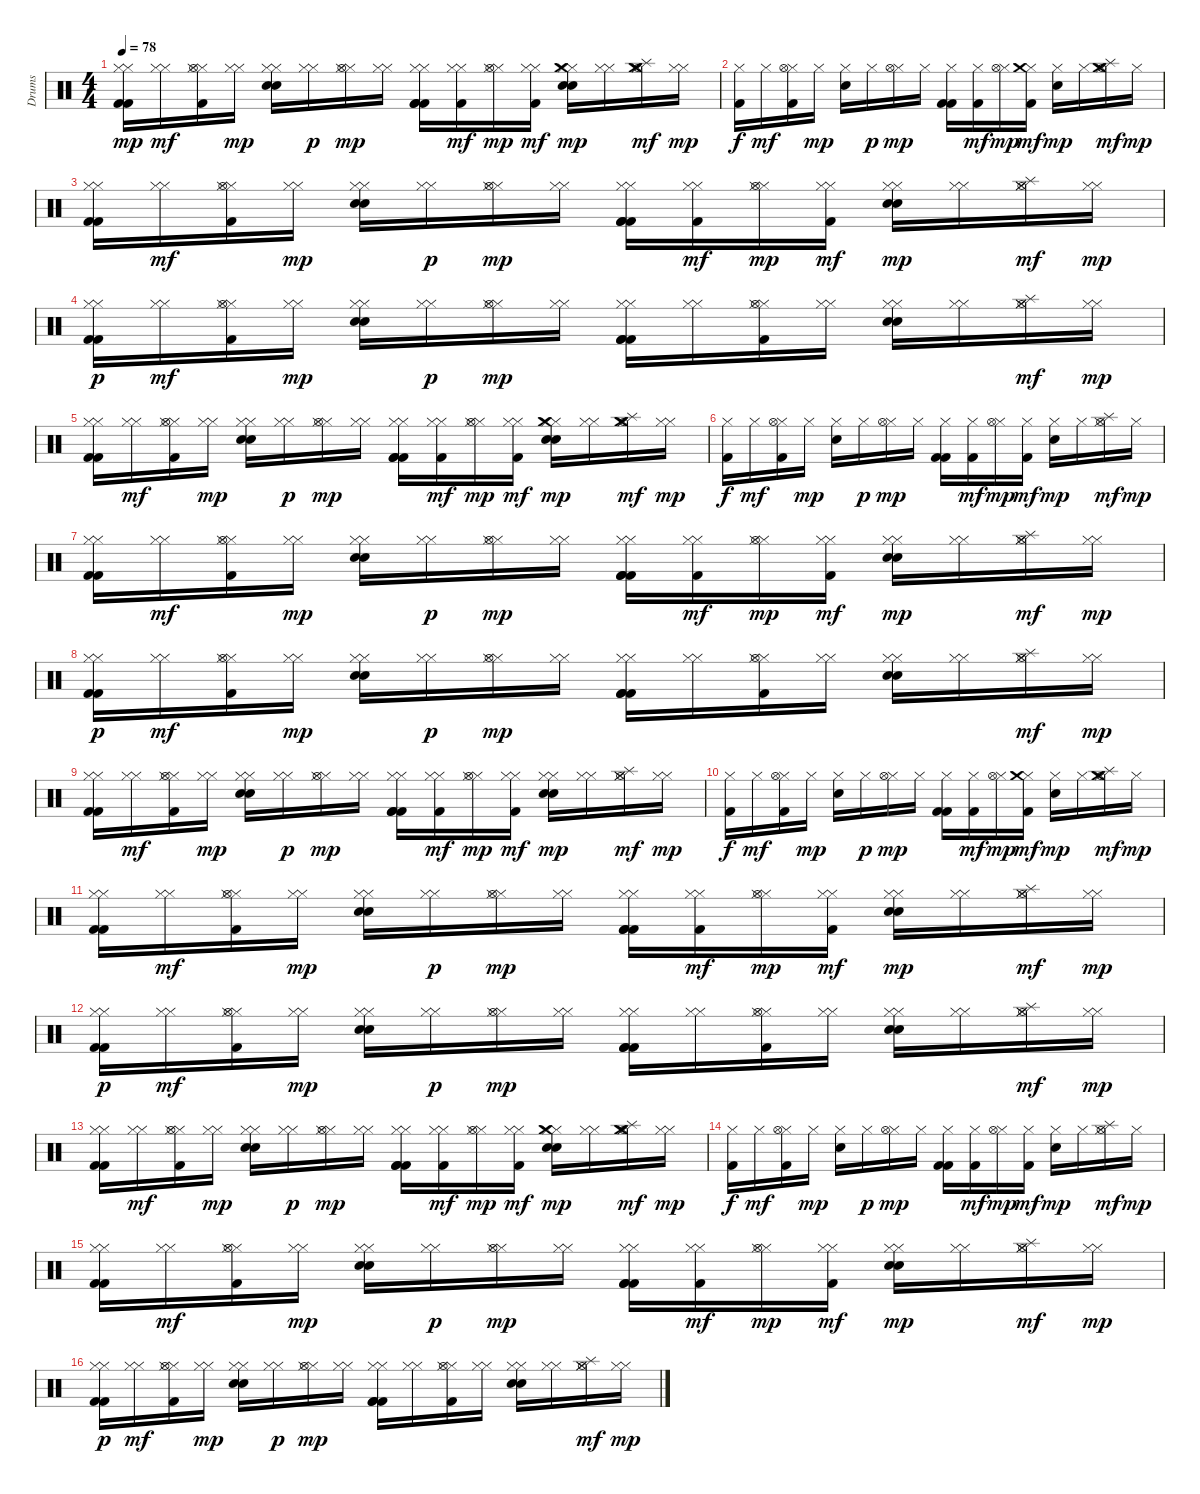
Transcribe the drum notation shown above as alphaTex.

\track ("Drums" "Drums") {instrument percussion}
\staff {score}
\articulation defaults
\ts (4 4)
\tempo 78
\clef neutral
\ks c
("Kick (hit) 2" "Hi-Hat (closed)" "Kick (hit) 2" "Hi-Hat (closed)").16{dy mp} ("Hi-Hat (closed)" "Hi-Hat (closed)").16{dy mf} ("Hi-Hat (closed)" "Hi-Hat (closed)" "Kick (hit) 2" "Hi-Hat (open)").16 ("Hi-Hat (closed)" "Hi-Hat (closed)").16{dy mp} ("Snare (hit) 2" "Hi-Hat (closed)" "Snare (hit) 2" "Hi-Hat (closed)").16 ("Hi-Hat (closed)" "Hi-Hat (closed)").16{dy p} ("Hi-Hat (closed)" "Hi-Hat (closed)" "Hi-Hat (open)").16{dy mp} ("Hi-Hat (closed)" "Hi-Hat (closed)").16 ("Kick (hit) 2" "Hi-Hat (closed)" "Kick (hit) 2" "Hi-Hat (closed)" "Kick (hit) 2").16 ("Hi-Hat (closed)" "Hi-Hat (closed)" "Kick (hit) 2").16{dy mf} ("Hi-Hat (closed)" "Hi-Hat (closed)" "Hi-Hat (open)").16{dy mp} ("Hi-Hat (closed)" "Hi-Hat (closed)" "Kick (hit) 2").16{dy mf} ("Snare (hit) 2" "Hi-Hat (closed)" "Snare (hit) 2" "Hi-Hat (closed)" "Crash medium (hit)").16{dy mp} ("Hi-Hat (closed)" "Hi-Hat (closed)").16 ("Hi-Hat (closed)" "Hi-Hat (closed)" "Hi-Hat (open)" "Splash (hit)" "Crash medium (hit)").16{dy mf} ("Hi-Hat (closed)" "Hi-Hat (closed)").16{dy mp} |
("Kick (hit) 2" "Hi-Hat (closed)").16{dy f} "Hi-Hat (closed)".16{dy mf} ("Hi-Hat (closed)" "Kick (hit) 2" "Hi-Hat (open)").16 "Hi-Hat (closed)".16{dy mp} ("Snare (hit) 2" "Hi-Hat (closed)").16 "Hi-Hat (closed)".16{dy p} ("Hi-Hat (closed)" "Hi-Hat (open)").16{dy mp} "Hi-Hat (closed)".16 ("Kick (hit) 2" "Hi-Hat (closed)" "Kick (hit) 2").16 ("Hi-Hat (closed)" "Kick (hit) 2").16{dy mf} ("Hi-Hat (closed)" "Hi-Hat (open)").16{dy mp} ("Hi-Hat (closed)" "Kick (hit) 2" "Crash medium (hit)").16{dy mf} ("Snare (hit) 2" "Hi-Hat (closed)").16{dy mp} "Hi-Hat (closed)".16 ("Crash medium (hit)" "Hi-Hat (closed)" "Hi-Hat (open)" "Splash (hit)").16{dy mf} "Hi-Hat (closed)".16{dy mp} |
("Kick (hit) 2" "Hi-Hat (closed)" "Kick (hit) 2" "Hi-Hat (closed)").16 ("Hi-Hat (closed)" "Hi-Hat (closed)").16{dy mf} ("Hi-Hat (closed)" "Hi-Hat (closed)" "Kick (hit) 2" "Hi-Hat (open)").16 ("Hi-Hat (closed)" "Hi-Hat (closed)").16{dy mp} ("Snare (hit) 2" "Hi-Hat (closed)" "Snare (hit) 2" "Hi-Hat (closed)").16 ("Hi-Hat (closed)" "Hi-Hat (closed)").16{dy p} ("Hi-Hat (closed)" "Hi-Hat (closed)" "Hi-Hat (open)").16{dy mp} ("Hi-Hat (closed)" "Hi-Hat (closed)").16 ("Kick (hit) 2" "Hi-Hat (closed)" "Kick (hit) 2" "Hi-Hat (closed)" "Kick (hit) 2").16 ("Hi-Hat (closed)" "Hi-Hat (closed)" "Kick (hit) 2").16{dy mf} ("Hi-Hat (closed)" "Hi-Hat (closed)" "Hi-Hat (open)").16{dy mp} ("Hi-Hat (closed)" "Hi-Hat (closed)" "Kick (hit) 2").16{dy mf} ("Snare (hit) 2" "Hi-Hat (closed)" "Snare (hit) 2" "Hi-Hat (closed)").16{dy mp} ("Hi-Hat (closed)" "Hi-Hat (closed)").16 ("Hi-Hat (closed)" "Hi-Hat (closed)" "Hi-Hat (open)" "Splash (hit)").16{dy mf} ("Hi-Hat (closed)" "Hi-Hat (closed)").16{dy mp} |
("Kick (hit) 2" "Hi-Hat (closed)" "Kick (hit) 2" "Hi-Hat (closed)").16{dy p} ("Hi-Hat (closed)" "Hi-Hat (closed)").16{dy mf} ("Hi-Hat (closed)" "Hi-Hat (closed)" "Kick (hit) 2" "Hi-Hat (open)").16 ("Hi-Hat (closed)" "Hi-Hat (closed)").16{dy mp} ("Snare (hit) 2" "Hi-Hat (closed)" "Snare (hit) 2" "Hi-Hat (closed)").16 ("Hi-Hat (closed)" "Hi-Hat (closed)").16{dy p} ("Hi-Hat (closed)" "Hi-Hat (closed)" "Hi-Hat (open)").16{dy mp} ("Hi-Hat (closed)" "Hi-Hat (closed)").16 ("Kick (hit) 2" "Hi-Hat (closed)" "Kick (hit) 2" "Hi-Hat (closed)" "Kick (hit) 2").16 ("Hi-Hat (closed)" "Hi-Hat (closed)").16 ("Kick (hit) 2" "Hi-Hat (closed)" "Hi-Hat (closed)" "Hi-Hat (open)").16 ("Hi-Hat (closed)" "Hi-Hat (closed)").16 ("Snare (hit) 2" "Hi-Hat (closed)" "Snare (hit) 2" "Hi-Hat (closed)").16 ("Hi-Hat (closed)" "Hi-Hat (closed)").16 ("Hi-Hat (closed)" "Hi-Hat (closed)" "Hi-Hat (open)" "Splash (hit)").16{dy mf} ("Hi-Hat (closed)" "Hi-Hat (closed)").16{dy mp} |
("Kick (hit) 2" "Hi-Hat (closed)" "Kick (hit) 2" "Hi-Hat (closed)").16 ("Hi-Hat (closed)" "Hi-Hat (closed)").16{dy mf} ("Hi-Hat (closed)" "Hi-Hat (closed)" "Kick (hit) 2" "Hi-Hat (open)").16 ("Hi-Hat (closed)" "Hi-Hat (closed)").16{dy mp} ("Snare (hit) 2" "Hi-Hat (closed)" "Snare (hit) 2" "Hi-Hat (closed)").16 ("Hi-Hat (closed)" "Hi-Hat (closed)").16{dy p} ("Hi-Hat (closed)" "Hi-Hat (closed)" "Hi-Hat (open)").16{dy mp} ("Hi-Hat (closed)" "Hi-Hat (closed)").16 ("Kick (hit) 2" "Hi-Hat (closed)" "Kick (hit) 2" "Hi-Hat (closed)" "Kick (hit) 2").16 ("Hi-Hat (closed)" "Hi-Hat (closed)" "Kick (hit) 2").16{dy mf} ("Hi-Hat (closed)" "Hi-Hat (closed)" "Hi-Hat (open)").16{dy mp} ("Hi-Hat (closed)" "Hi-Hat (closed)" "Kick (hit) 2").16{dy mf} ("Snare (hit) 2" "Hi-Hat (closed)" "Snare (hit) 2" "Hi-Hat (closed)" "Crash medium (hit)").16{dy mp} ("Hi-Hat (closed)" "Hi-Hat (closed)").16 ("Hi-Hat (closed)" "Hi-Hat (closed)" "Hi-Hat (open)" "Splash (hit)" "Crash medium (hit)").16{dy mf} ("Hi-Hat (closed)" "Hi-Hat (closed)").16{dy mp} |
("Kick (hit) 2" "Hi-Hat (closed)").16{dy f} "Hi-Hat (closed)".16{dy mf} ("Hi-Hat (closed)" "Kick (hit) 2" "Hi-Hat (open)").16 "Hi-Hat (closed)".16{dy mp} ("Snare (hit) 2" "Hi-Hat (closed)").16 "Hi-Hat (closed)".16{dy p} ("Hi-Hat (closed)" "Hi-Hat (open)").16{dy mp} "Hi-Hat (closed)".16 ("Kick (hit) 2" "Hi-Hat (closed)" "Kick (hit) 2").16 ("Hi-Hat (closed)" "Kick (hit) 2").16{dy mf} ("Hi-Hat (closed)" "Hi-Hat (open)").16{dy mp} ("Hi-Hat (closed)" "Kick (hit) 2").16{dy mf} ("Snare (hit) 2" "Hi-Hat (closed)").16{dy mp} "Hi-Hat (closed)".16 ("Hi-Hat (closed)" "Hi-Hat (open)" "Splash (hit)").16{dy mf} "Hi-Hat (closed)".16{dy mp} |
("Kick (hit) 2" "Hi-Hat (closed)" "Kick (hit) 2" "Hi-Hat (closed)").16 ("Hi-Hat (closed)" "Hi-Hat (closed)").16{dy mf} ("Hi-Hat (closed)" "Hi-Hat (closed)" "Kick (hit) 2" "Hi-Hat (open)").16 ("Hi-Hat (closed)" "Hi-Hat (closed)").16{dy mp} ("Snare (hit) 2" "Hi-Hat (closed)" "Snare (hit) 2" "Hi-Hat (closed)").16 ("Hi-Hat (closed)" "Hi-Hat (closed)").16{dy p} ("Hi-Hat (closed)" "Hi-Hat (closed)" "Hi-Hat (open)").16{dy mp} ("Hi-Hat (closed)" "Hi-Hat (closed)").16 ("Kick (hit) 2" "Hi-Hat (closed)" "Kick (hit) 2" "Hi-Hat (closed)" "Kick (hit) 2").16 ("Hi-Hat (closed)" "Hi-Hat (closed)" "Kick (hit) 2").16{dy mf} ("Hi-Hat (closed)" "Hi-Hat (closed)" "Hi-Hat (open)").16{dy mp} ("Hi-Hat (closed)" "Hi-Hat (closed)" "Kick (hit) 2").16{dy mf} ("Snare (hit) 2" "Hi-Hat (closed)" "Snare (hit) 2" "Hi-Hat (closed)").16{dy mp} ("Hi-Hat (closed)" "Hi-Hat (closed)").16 ("Hi-Hat (closed)" "Hi-Hat (closed)" "Hi-Hat (open)" "Splash (hit)").16{dy mf} ("Hi-Hat (closed)" "Hi-Hat (closed)").16{dy mp} |
("Kick (hit) 2" "Hi-Hat (closed)" "Kick (hit) 2" "Hi-Hat (closed)").16{dy p} ("Hi-Hat (closed)" "Hi-Hat (closed)").16{dy mf} ("Hi-Hat (closed)" "Hi-Hat (closed)" "Kick (hit) 2" "Hi-Hat (open)").16 ("Hi-Hat (closed)" "Hi-Hat (closed)").16{dy mp} ("Snare (hit) 2" "Hi-Hat (closed)" "Snare (hit) 2" "Hi-Hat (closed)").16 ("Hi-Hat (closed)" "Hi-Hat (closed)").16{dy p} ("Hi-Hat (closed)" "Hi-Hat (closed)" "Hi-Hat (open)").16{dy mp} ("Hi-Hat (closed)" "Hi-Hat (closed)").16 ("Kick (hit) 2" "Hi-Hat (closed)" "Kick (hit) 2" "Hi-Hat (closed)" "Kick (hit) 2").16 ("Hi-Hat (closed)" "Hi-Hat (closed)").16 ("Kick (hit) 2" "Hi-Hat (closed)" "Hi-Hat (closed)" "Hi-Hat (open)").16 ("Hi-Hat (closed)" "Hi-Hat (closed)").16 ("Snare (hit) 2" "Hi-Hat (closed)" "Snare (hit) 2" "Hi-Hat (closed)").16 ("Hi-Hat (closed)" "Hi-Hat (closed)").16 ("Hi-Hat (closed)" "Hi-Hat (closed)" "Hi-Hat (open)" "Splash (hit)").16{dy mf} ("Hi-Hat (closed)" "Hi-Hat (closed)").16{dy mp} |
("Kick (hit) 2" "Hi-Hat (closed)" "Kick (hit) 2" "Hi-Hat (closed)").16 ("Hi-Hat (closed)" "Hi-Hat (closed)").16{dy mf} ("Hi-Hat (closed)" "Hi-Hat (closed)" "Kick (hit) 2" "Hi-Hat (open)").16 ("Hi-Hat (closed)" "Hi-Hat (closed)").16{dy mp} ("Snare (hit) 2" "Hi-Hat (closed)" "Snare (hit) 2" "Hi-Hat (closed)").16 ("Hi-Hat (closed)" "Hi-Hat (closed)").16{dy p} ("Hi-Hat (closed)" "Hi-Hat (closed)" "Hi-Hat (open)").16{dy mp} ("Hi-Hat (closed)" "Hi-Hat (closed)").16 ("Kick (hit) 2" "Hi-Hat (closed)" "Kick (hit) 2" "Hi-Hat (closed)" "Kick (hit) 2").16 ("Hi-Hat (closed)" "Hi-Hat (closed)" "Kick (hit) 2").16{dy mf} ("Hi-Hat (closed)" "Hi-Hat (closed)" "Hi-Hat (open)").16{dy mp} ("Hi-Hat (closed)" "Hi-Hat (closed)" "Kick (hit) 2").16{dy mf} ("Snare (hit) 2" "Hi-Hat (closed)" "Snare (hit) 2" "Hi-Hat (closed)").16{dy mp} ("Hi-Hat (closed)" "Hi-Hat (closed)").16 ("Hi-Hat (closed)" "Hi-Hat (closed)" "Hi-Hat (open)" "Splash (hit)").16{dy mf} ("Hi-Hat (closed)" "Hi-Hat (closed)").16{dy mp} |
("Kick (hit) 2" "Hi-Hat (closed)").16{dy f} "Hi-Hat (closed)".16{dy mf} ("Hi-Hat (closed)" "Kick (hit) 2" "Hi-Hat (open)").16 "Hi-Hat (closed)".16{dy mp} ("Snare (hit) 2" "Hi-Hat (closed)").16 "Hi-Hat (closed)".16{dy p} ("Hi-Hat (closed)" "Hi-Hat (open)").16{dy mp} "Hi-Hat (closed)".16 ("Kick (hit) 2" "Hi-Hat (closed)" "Kick (hit) 2").16 ("Hi-Hat (closed)" "Kick (hit) 2").16{dy mf} ("Hi-Hat (closed)" "Hi-Hat (open)").16{dy mp} ("Hi-Hat (closed)" "Kick (hit) 2" "Crash medium (hit)").16{dy mf} ("Snare (hit) 2" "Hi-Hat (closed)").16{dy mp} "Hi-Hat (closed)".16 ("Crash medium (hit)" "Hi-Hat (closed)" "Hi-Hat (open)" "Splash (hit)").16{dy mf} "Hi-Hat (closed)".16{dy mp} |
("Kick (hit) 2" "Hi-Hat (closed)" "Kick (hit) 2" "Hi-Hat (closed)").16 ("Hi-Hat (closed)" "Hi-Hat (closed)").16{dy mf} ("Hi-Hat (closed)" "Hi-Hat (closed)" "Kick (hit) 2" "Hi-Hat (open)").16 ("Hi-Hat (closed)" "Hi-Hat (closed)").16{dy mp} ("Snare (hit) 2" "Hi-Hat (closed)" "Snare (hit) 2" "Hi-Hat (closed)").16 ("Hi-Hat (closed)" "Hi-Hat (closed)").16{dy p} ("Hi-Hat (closed)" "Hi-Hat (closed)" "Hi-Hat (open)").16{dy mp} ("Hi-Hat (closed)" "Hi-Hat (closed)").16 ("Kick (hit) 2" "Hi-Hat (closed)" "Kick (hit) 2" "Hi-Hat (closed)" "Kick (hit) 2").16 ("Hi-Hat (closed)" "Hi-Hat (closed)" "Kick (hit) 2").16{dy mf} ("Hi-Hat (closed)" "Hi-Hat (closed)" "Hi-Hat (open)").16{dy mp} ("Hi-Hat (closed)" "Hi-Hat (closed)" "Kick (hit) 2").16{dy mf} ("Snare (hit) 2" "Hi-Hat (closed)" "Snare (hit) 2" "Hi-Hat (closed)").16{dy mp} ("Hi-Hat (closed)" "Hi-Hat (closed)").16 ("Hi-Hat (closed)" "Hi-Hat (closed)" "Hi-Hat (open)" "Splash (hit)").16{dy mf} ("Hi-Hat (closed)" "Hi-Hat (closed)").16{dy mp} |
("Kick (hit) 2" "Hi-Hat (closed)" "Kick (hit) 2" "Hi-Hat (closed)").16{dy p} ("Hi-Hat (closed)" "Hi-Hat (closed)").16{dy mf} ("Hi-Hat (closed)" "Hi-Hat (closed)" "Kick (hit) 2" "Hi-Hat (open)").16 ("Hi-Hat (closed)" "Hi-Hat (closed)").16{dy mp} ("Snare (hit) 2" "Hi-Hat (closed)" "Snare (hit) 2" "Hi-Hat (closed)").16 ("Hi-Hat (closed)" "Hi-Hat (closed)").16{dy p} ("Hi-Hat (closed)" "Hi-Hat (closed)" "Hi-Hat (open)").16{dy mp} ("Hi-Hat (closed)" "Hi-Hat (closed)").16 ("Kick (hit) 2" "Hi-Hat (closed)" "Kick (hit) 2" "Hi-Hat (closed)" "Kick (hit) 2").16 ("Hi-Hat (closed)" "Hi-Hat (closed)").16 ("Kick (hit) 2" "Hi-Hat (closed)" "Hi-Hat (closed)" "Hi-Hat (open)").16 ("Hi-Hat (closed)" "Hi-Hat (closed)").16 ("Snare (hit) 2" "Hi-Hat (closed)" "Snare (hit) 2" "Hi-Hat (closed)").16 ("Hi-Hat (closed)" "Hi-Hat (closed)").16 ("Hi-Hat (closed)" "Hi-Hat (closed)" "Hi-Hat (open)" "Splash (hit)").16{dy mf} ("Hi-Hat (closed)" "Hi-Hat (closed)").16{dy mp} |
("Kick (hit) 2" "Hi-Hat (closed)" "Kick (hit) 2" "Hi-Hat (closed)").16 ("Hi-Hat (closed)" "Hi-Hat (closed)").16{dy mf} ("Hi-Hat (closed)" "Hi-Hat (closed)" "Kick (hit) 2" "Hi-Hat (open)").16 ("Hi-Hat (closed)" "Hi-Hat (closed)").16{dy mp} ("Snare (hit) 2" "Hi-Hat (closed)" "Snare (hit) 2" "Hi-Hat (closed)").16 ("Hi-Hat (closed)" "Hi-Hat (closed)").16{dy p} ("Hi-Hat (closed)" "Hi-Hat (closed)" "Hi-Hat (open)").16{dy mp} ("Hi-Hat (closed)" "Hi-Hat (closed)").16 ("Kick (hit) 2" "Hi-Hat (closed)" "Kick (hit) 2" "Hi-Hat (closed)" "Kick (hit) 2").16 ("Hi-Hat (closed)" "Hi-Hat (closed)" "Kick (hit) 2").16{dy mf} ("Hi-Hat (closed)" "Hi-Hat (closed)" "Hi-Hat (open)").16{dy mp} ("Hi-Hat (closed)" "Hi-Hat (closed)" "Kick (hit) 2").16{dy mf} ("Snare (hit) 2" "Hi-Hat (closed)" "Snare (hit) 2" "Hi-Hat (closed)" "Crash medium (hit)").16{dy mp} ("Hi-Hat (closed)" "Hi-Hat (closed)").16 ("Hi-Hat (closed)" "Hi-Hat (closed)" "Hi-Hat (open)" "Splash (hit)" "Crash medium (hit)").16{dy mf} ("Hi-Hat (closed)" "Hi-Hat (closed)").16{dy mp} |
("Kick (hit) 2" "Hi-Hat (closed)").16{dy f} "Hi-Hat (closed)".16{dy mf} ("Hi-Hat (closed)" "Kick (hit) 2" "Hi-Hat (open)").16 "Hi-Hat (closed)".16{dy mp} ("Snare (hit) 2" "Hi-Hat (closed)").16 "Hi-Hat (closed)".16{dy p} ("Hi-Hat (closed)" "Hi-Hat (open)").16{dy mp} "Hi-Hat (closed)".16 ("Kick (hit) 2" "Hi-Hat (closed)" "Kick (hit) 2").16 ("Hi-Hat (closed)" "Kick (hit) 2").16{dy mf} ("Hi-Hat (closed)" "Hi-Hat (open)").16{dy mp} ("Hi-Hat (closed)" "Kick (hit) 2").16{dy mf} ("Snare (hit) 2" "Hi-Hat (closed)").16{dy mp} "Hi-Hat (closed)".16 ("Hi-Hat (closed)" "Hi-Hat (open)" "Splash (hit)").16{dy mf} "Hi-Hat (closed)".16{dy mp} |
("Kick (hit) 2" "Hi-Hat (closed)" "Kick (hit) 2" "Hi-Hat (closed)").16 ("Hi-Hat (closed)" "Hi-Hat (closed)").16{dy mf} ("Hi-Hat (closed)" "Hi-Hat (closed)" "Kick (hit) 2" "Hi-Hat (open)").16 ("Hi-Hat (closed)" "Hi-Hat (closed)").16{dy mp} ("Snare (hit) 2" "Hi-Hat (closed)" "Snare (hit) 2" "Hi-Hat (closed)").16 ("Hi-Hat (closed)" "Hi-Hat (closed)").16{dy p} ("Hi-Hat (closed)" "Hi-Hat (closed)" "Hi-Hat (open)").16{dy mp} ("Hi-Hat (closed)" "Hi-Hat (closed)").16 ("Kick (hit) 2" "Hi-Hat (closed)" "Kick (hit) 2" "Hi-Hat (closed)" "Kick (hit) 2").16 ("Hi-Hat (closed)" "Hi-Hat (closed)" "Kick (hit) 2").16{dy mf} ("Hi-Hat (closed)" "Hi-Hat (closed)" "Hi-Hat (open)").16{dy mp} ("Hi-Hat (closed)" "Hi-Hat (closed)" "Kick (hit) 2").16{dy mf} ("Snare (hit) 2" "Hi-Hat (closed)" "Snare (hit) 2" "Hi-Hat (closed)").16{dy mp} ("Hi-Hat (closed)" "Hi-Hat (closed)").16 ("Hi-Hat (closed)" "Hi-Hat (closed)" "Hi-Hat (open)" "Splash (hit)").16{dy mf} ("Hi-Hat (closed)" "Hi-Hat (closed)").16{dy mp} |
("Kick (hit) 2" "Hi-Hat (closed)" "Kick (hit) 2" "Hi-Hat (closed)").16{dy p} ("Hi-Hat (closed)" "Hi-Hat (closed)").16{dy mf} ("Hi-Hat (closed)" "Hi-Hat (closed)" "Kick (hit) 2" "Hi-Hat (open)").16 ("Hi-Hat (closed)" "Hi-Hat (closed)").16{dy mp} ("Snare (hit) 2" "Hi-Hat (closed)" "Snare (hit) 2" "Hi-Hat (closed)").16 ("Hi-Hat (closed)" "Hi-Hat (closed)").16{dy p} ("Hi-Hat (closed)" "Hi-Hat (closed)" "Hi-Hat (open)").16{dy mp} ("Hi-Hat (closed)" "Hi-Hat (closed)").16 ("Kick (hit) 2" "Hi-Hat (closed)" "Kick (hit) 2" "Hi-Hat (closed)" "Kick (hit) 2").16 ("Hi-Hat (closed)" "Hi-Hat (closed)").16 ("Kick (hit) 2" "Hi-Hat (closed)" "Hi-Hat (closed)" "Hi-Hat (open)").16 ("Hi-Hat (closed)" "Hi-Hat (closed)").16 ("Snare (hit) 2" "Hi-Hat (closed)" "Snare (hit) 2" "Hi-Hat (closed)").16 ("Hi-Hat (closed)" "Hi-Hat (closed)").16 ("Hi-Hat (closed)" "Hi-Hat (closed)" "Hi-Hat (open)" "Splash (hit)").16{dy mf} ("Hi-Hat (closed)" "Hi-Hat (closed)").16{dy mp}
